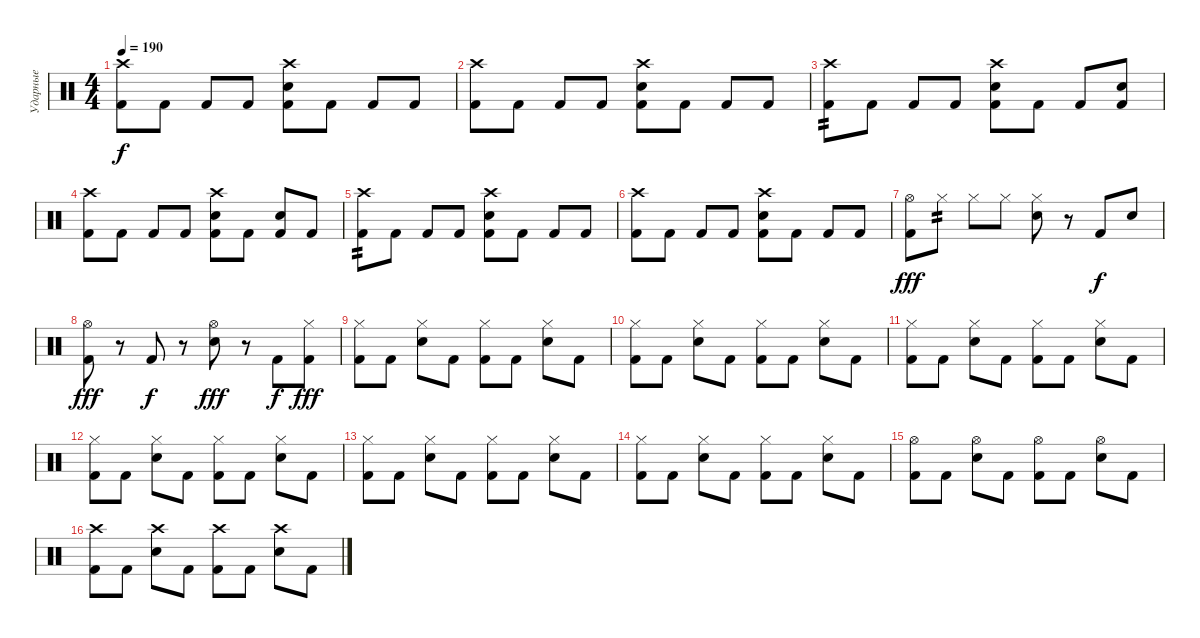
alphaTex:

\track ("Ударные" "Ударные") {instrument percussion}
\staff {score}
\articulation defaults
\ts (4 4)
\tempo 190
\clef neutral
\ks c
("Crash high (hit)" "Kick (hit) 2").8{dy f} "Kick (hit) 2".8 "Kick (hit) 2".8 "Kick (hit) 2".8 ("Crash high (hit)" "Snare (hit) 2" "Kick (hit) 2").8 "Kick (hit) 2".8 "Kick (hit) 2".8 "Kick (hit) 2".8 |
("Crash high (hit)" "Kick (hit) 2").8 "Kick (hit) 2".8 "Kick (hit) 2".8 "Kick (hit) 2".8 ("Crash high (hit)" "Snare (hit) 2" "Kick (hit) 2").8 "Kick (hit) 2".8 "Kick (hit) 2".8 "Kick (hit) 2".8 |
("Crash high (hit)" "Kick (hit) 2").8{tp 2} "Kick (hit) 2".8 "Kick (hit) 2".8 "Kick (hit) 2".8 ("Crash high (hit)" "Snare (hit) 2" "Kick (hit) 2").8 "Kick (hit) 2".8 "Kick (hit) 2".8 ("Snare (hit) 2" "Kick (hit) 2").8 |
("Crash high (hit)" "Kick (hit) 2").8 "Kick (hit) 2".8 "Kick (hit) 2".8 "Kick (hit) 2".8 ("Crash high (hit)" "Snare (hit) 2" "Kick (hit) 2").8 "Kick (hit) 2".8 ("Snare (hit) 2" "Kick (hit) 2").8 "Kick (hit) 2".8 |
("Crash high (hit)" "Kick (hit) 2").8{tp 2} "Kick (hit) 2".8 "Kick (hit) 2".8 "Kick (hit) 2".8 ("Crash high (hit)" "Snare (hit) 2" "Kick (hit) 2").8 "Kick (hit) 2".8 "Kick (hit) 2".8 "Kick (hit) 2".8 |
("Crash high (hit)" "Kick (hit) 2").8 "Kick (hit) 2".8 "Kick (hit) 2".8 "Kick (hit) 2".8 ("Crash high (hit)" "Snare (hit) 2" "Kick (hit) 2").8 "Kick (hit) 2".8 "Kick (hit) 2".8 "Kick (hit) 2".8 |
("Hi-Hat (open)" "Kick (hit) 2").8{dy fff} "Hi-Hat (closed)".8{tp 2} "Hi-Hat (closed)".8 "Hi-Hat (closed)".8 ("Hi-Hat (closed)" "Snare (hit) 2").8 r.8 "Kick (hit) 2".8{dy f} "Snare (hit) 2".8 |
("Hi-Hat (open)" "Kick (hit) 2").8{dy fff} r.8 "Kick (hit) 2".8{dy f} r.8 ("Hi-Hat (open)" "Snare (hit) 2").8{dy fff} r.8 "Kick (hit) 2".8{dy f} ("Hi-Hat (closed)" "Kick (hit) 2").8{dy fff} |
("Hi-Hat (closed)" "Kick (hit) 2").8 "Kick (hit) 2".8 ("Hi-Hat (closed)" "Snare (hit) 2").8 "Kick (hit) 2".8 ("Hi-Hat (closed)" "Kick (hit) 2").8 "Kick (hit) 2".8 ("Hi-Hat (closed)" "Snare (hit) 2").8 "Kick (hit) 2".8 |
("Hi-Hat (closed)" "Kick (hit) 2").8 "Kick (hit) 2".8 ("Hi-Hat (closed)" "Snare (hit) 2").8 "Kick (hit) 2".8 ("Hi-Hat (closed)" "Kick (hit) 2").8 "Kick (hit) 2".8 ("Hi-Hat (closed)" "Snare (hit) 2").8 "Kick (hit) 2".8 |
("Hi-Hat (closed)" "Kick (hit) 2").8 "Kick (hit) 2".8 ("Hi-Hat (closed)" "Snare (hit) 2").8 "Kick (hit) 2".8 ("Hi-Hat (closed)" "Kick (hit) 2").8 "Kick (hit) 2".8 ("Hi-Hat (closed)" "Snare (hit) 2").8 "Kick (hit) 2".8 |
("Hi-Hat (closed)" "Kick (hit) 2").8 "Kick (hit) 2".8 ("Hi-Hat (closed)" "Snare (hit) 2").8 "Kick (hit) 2".8 ("Hi-Hat (closed)" "Kick (hit) 2").8 "Kick (hit) 2".8 ("Hi-Hat (closed)" "Snare (hit) 2").8 "Kick (hit) 2".8 |
("Hi-Hat (closed)" "Kick (hit) 2").8 "Kick (hit) 2".8 ("Hi-Hat (closed)" "Snare (hit) 2").8 "Kick (hit) 2".8 ("Hi-Hat (closed)" "Kick (hit) 2").8 "Kick (hit) 2".8 ("Hi-Hat (closed)" "Snare (hit) 2").8 "Kick (hit) 2".8 |
("Hi-Hat (closed)" "Kick (hit) 2").8 "Kick (hit) 2".8 ("Hi-Hat (closed)" "Snare (hit) 2").8 "Kick (hit) 2".8 ("Hi-Hat (closed)" "Kick (hit) 2").8 "Kick (hit) 2".8 ("Hi-Hat (closed)" "Snare (hit) 2").8 "Kick (hit) 2".8 |
("Hi-Hat (open)" "Kick (hit) 2").8 "Kick (hit) 2".8 ("Hi-Hat (open)" "Snare (hit) 2").8 "Kick (hit) 2".8 ("Hi-Hat (open)" "Kick (hit) 2").8 "Kick (hit) 2".8 ("Hi-Hat (open)" "Snare (hit) 2").8 "Kick (hit) 2".8 |
("Crash high (hit)" "Kick (hit) 2").8 "Kick (hit) 2".8 ("Crash high (hit)" "Snare (hit) 2").8 "Kick (hit) 2".8 ("Crash high (hit)" "Kick (hit) 2").8 "Kick (hit) 2".8 ("Crash high (hit)" "Snare (hit) 2").8 "Kick (hit) 2".8
